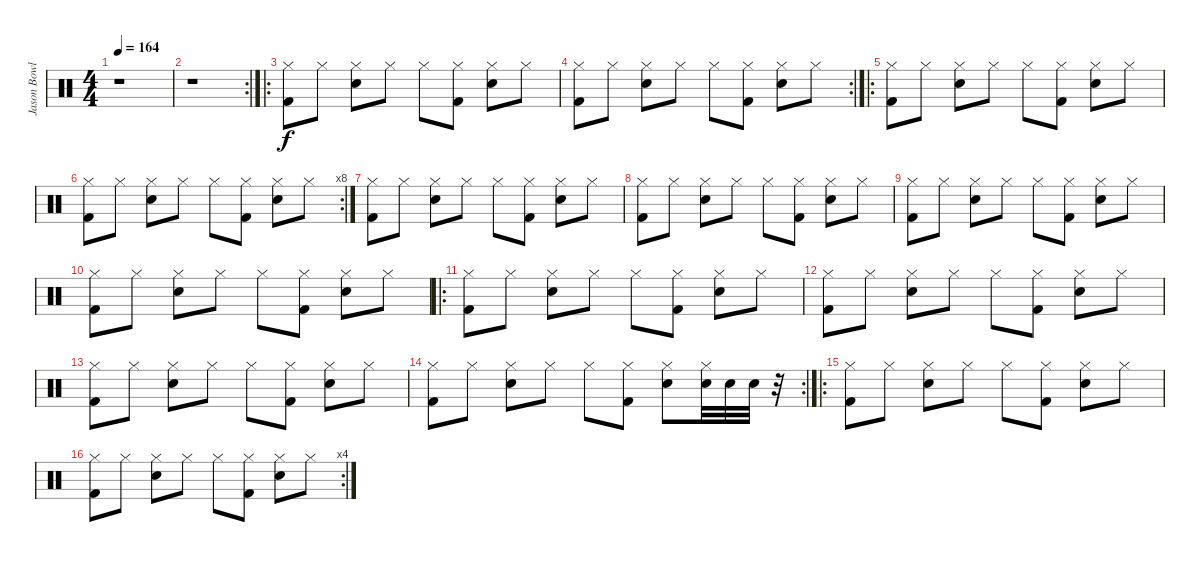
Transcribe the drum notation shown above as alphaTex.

\track ("Jason Bowld" "Jason Bowl") {instrument percussion}
\staff {score}
\articulation defaults
\ts (4 4)
\tempo 164
\clef neutral
\ks c
r.1{dy f} |
\rc 2
r.1 |
\ro
("Hi-Hat (closed)" "Kick (hit) 2").8 "Hi-Hat (closed)".8 ("Hi-Hat (closed)" "Snare (hit) 2").8 "Hi-Hat (closed)".8 "Hi-Hat (closed)".8 ("Hi-Hat (closed)" "Kick (hit) 2").8 ("Hi-Hat (closed)" "Snare (hit) 2").8 "Hi-Hat (closed)".8 |
\rc 2
("Hi-Hat (closed)" "Kick (hit) 2").8 "Hi-Hat (closed)".8 ("Hi-Hat (closed)" "Snare (hit) 2").8 "Hi-Hat (closed)".8 "Hi-Hat (closed)".8 ("Hi-Hat (closed)" "Kick (hit) 2").8 ("Hi-Hat (closed)" "Snare (hit) 2").8 "Hi-Hat (closed)".8 |
\ro
("Hi-Hat (closed)" "Kick (hit) 2").8 "Hi-Hat (closed)".8 ("Hi-Hat (closed)" "Snare (hit) 2").8 "Hi-Hat (closed)".8 "Hi-Hat (closed)".8 ("Hi-Hat (closed)" "Kick (hit) 2").8 ("Hi-Hat (closed)" "Snare (hit) 2").8 "Hi-Hat (closed)".8 |
\rc 8
("Hi-Hat (closed)" "Kick (hit) 2").8 "Hi-Hat (closed)".8 ("Hi-Hat (closed)" "Snare (hit) 2").8 "Hi-Hat (closed)".8 "Hi-Hat (closed)".8 ("Hi-Hat (closed)" "Kick (hit) 2").8 ("Hi-Hat (closed)" "Snare (hit) 2").8 "Hi-Hat (closed)".8 |
("Hi-Hat (closed)" "Kick (hit) 2").8 "Hi-Hat (closed)".8 ("Hi-Hat (closed)" "Snare (hit) 2").8 "Hi-Hat (closed)".8 "Hi-Hat (closed)".8 ("Hi-Hat (closed)" "Kick (hit) 2").8 ("Hi-Hat (closed)" "Snare (hit) 2").8 "Hi-Hat (closed)".8 |
("Hi-Hat (closed)" "Kick (hit) 2").8 "Hi-Hat (closed)".8 ("Hi-Hat (closed)" "Snare (hit) 2").8 "Hi-Hat (closed)".8 "Hi-Hat (closed)".8 ("Hi-Hat (closed)" "Kick (hit) 2").8 ("Hi-Hat (closed)" "Snare (hit) 2").8 "Hi-Hat (closed)".8 |
("Hi-Hat (closed)" "Kick (hit) 2").8 "Hi-Hat (closed)".8 ("Hi-Hat (closed)" "Snare (hit) 2").8 "Hi-Hat (closed)".8 "Hi-Hat (closed)".8 ("Hi-Hat (closed)" "Kick (hit) 2").8 ("Hi-Hat (closed)" "Snare (hit) 2").8 "Hi-Hat (closed)".8 |
("Hi-Hat (closed)" "Kick (hit) 2").8 "Hi-Hat (closed)".8 ("Hi-Hat (closed)" "Snare (hit) 2").8 "Hi-Hat (closed)".8 "Hi-Hat (closed)".8 ("Hi-Hat (closed)" "Kick (hit) 2").8 ("Hi-Hat (closed)" "Snare (hit) 2").8 "Hi-Hat (closed)".8 |
\ro
("Hi-Hat (closed)" "Kick (hit) 2").8 "Hi-Hat (closed)".8 ("Hi-Hat (closed)" "Snare (hit) 2").8 "Hi-Hat (closed)".8 "Hi-Hat (closed)".8 ("Hi-Hat (closed)" "Kick (hit) 2").8 ("Hi-Hat (closed)" "Snare (hit) 2").8 "Hi-Hat (closed)".8 |
("Hi-Hat (closed)" "Kick (hit) 2").8 "Hi-Hat (closed)".8 ("Hi-Hat (closed)" "Snare (hit) 2").8 "Hi-Hat (closed)".8 "Hi-Hat (closed)".8 ("Hi-Hat (closed)" "Kick (hit) 2").8 ("Hi-Hat (closed)" "Snare (hit) 2").8 "Hi-Hat (closed)".8 |
("Hi-Hat (closed)" "Kick (hit) 2").8 "Hi-Hat (closed)".8 ("Hi-Hat (closed)" "Snare (hit) 2").8 "Hi-Hat (closed)".8 "Hi-Hat (closed)".8 ("Hi-Hat (closed)" "Kick (hit) 2").8 ("Hi-Hat (closed)" "Snare (hit) 2").8 "Hi-Hat (closed)".8 |
\rc 2
("Hi-Hat (closed)" "Kick (hit) 2").8 "Hi-Hat (closed)".8 ("Hi-Hat (closed)" "Snare (hit) 2").8 "Hi-Hat (closed)".8 "Hi-Hat (closed)".8 ("Hi-Hat (closed)" "Kick (hit) 2").8 ("Hi-Hat (closed)" "Snare (hit) 2").8 ("Hi-Hat (closed)" "Snare (hit) 2").32 "Snare (hit) 2".32 "Snare (hit) 2".32 r.32 |
\ro
("Hi-Hat (closed)" "Kick (hit) 2").8 "Hi-Hat (closed)".8 ("Hi-Hat (closed)" "Snare (hit) 2").8 "Hi-Hat (closed)".8 "Hi-Hat (closed)".8 ("Hi-Hat (closed)" "Kick (hit) 2").8 ("Hi-Hat (closed)" "Snare (hit) 2").8 "Hi-Hat (closed)".8 |
\rc 4
("Hi-Hat (closed)" "Kick (hit) 2").8 "Hi-Hat (closed)".8 ("Hi-Hat (closed)" "Snare (hit) 2").8 "Hi-Hat (closed)".8 "Hi-Hat (closed)".8 ("Hi-Hat (closed)" "Kick (hit) 2").8 ("Hi-Hat (closed)" "Snare (hit) 2").8 "Hi-Hat (closed)".8
